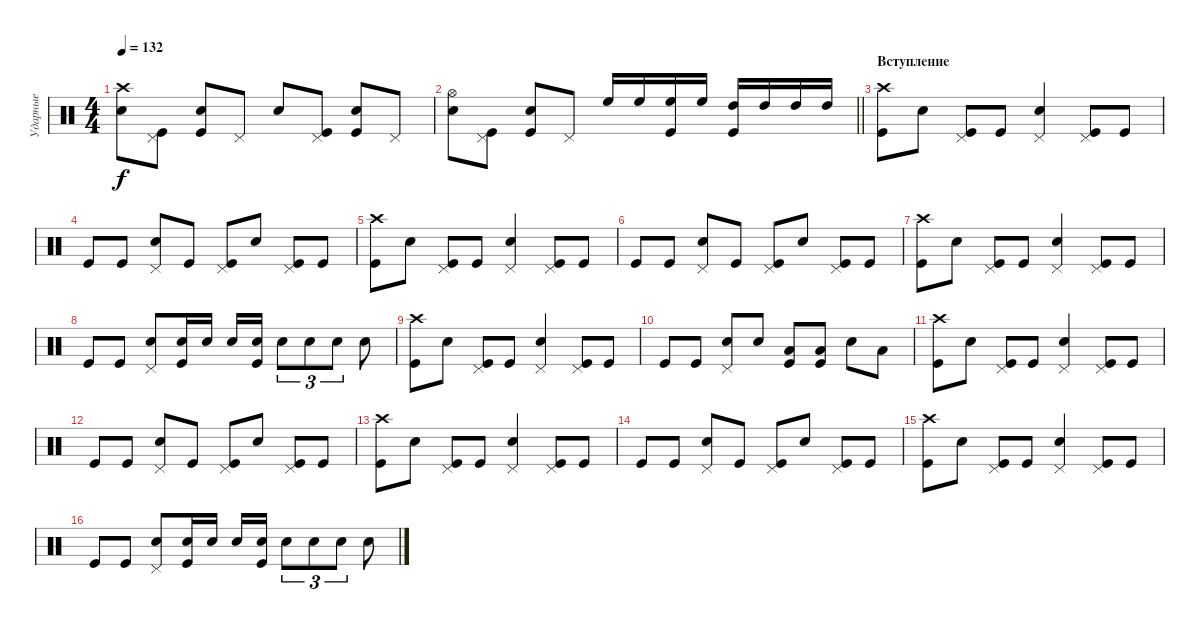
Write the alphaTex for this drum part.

\track ("Ударные" "Ударные") {instrument percussion}
\staff {score}
\articulation defaults
\ts (4 4)
\tempo 132
\clef neutral
\ks c
("Crash high (hit)" "Snare (hit) 2").8{dy f} ("Pedal Hi-Hat (hit)" "Kick (hit)").8 ("Snare (hit) 2" "Kick (hit)").8 "Pedal Hi-Hat (hit)".8 "Snare (hit) 2".8 ("Pedal Hi-Hat (hit)" "Kick (hit)").8 ("Snare (hit) 2" "Kick (hit)").8 "Pedal Hi-Hat (hit)".8 |
\barLineRight lightlight
("Hi-Hat (open)" "Snare (hit) 2").8 ("Pedal Hi-Hat (hit)" "Kick (hit)").8 ("Snare (hit) 2" "Kick (hit)").8 "Pedal Hi-Hat (hit)".8 "High Floor Tom (hit)".16 "High Floor Tom (hit)".16 ("High Floor Tom (hit)" "Kick (hit)").16 "High Floor Tom (hit)".16 ("High Tom (hit)" "Kick (hit)").16 "High Tom (hit)".16 "High Tom (hit)".16 "High Tom (hit)".16 |
\section ("" "Вступление")
("Crash high (hit)" "Kick (hit)").8 "Electric Snare (hit)".8 ("Pedal Hi-Hat (hit)" "Kick (hit)").8 "Kick (hit)".8 ("Pedal Hi-Hat (hit)" "Electric Snare (hit)").4 ("Pedal Hi-Hat (hit)" "Kick (hit)").8 "Kick (hit)".8 |
"Kick (hit)".8 "Kick (hit)".8 ("Pedal Hi-Hat (hit)" "Electric Snare (hit)").8 "Kick (hit)".8 ("Pedal Hi-Hat (hit)" "Kick (hit)").8 "Electric Snare (hit)".8 ("Pedal Hi-Hat (hit)" "Kick (hit)").8 "Kick (hit)".8 |
("Crash high (hit)" "Kick (hit)").8 "Electric Snare (hit)".8 ("Pedal Hi-Hat (hit)" "Kick (hit)").8 "Kick (hit)".8 ("Pedal Hi-Hat (hit)" "Electric Snare (hit)").4 ("Pedal Hi-Hat (hit)" "Kick (hit)").8 "Kick (hit)".8 |
"Kick (hit)".8 "Kick (hit)".8 ("Pedal Hi-Hat (hit)" "Electric Snare (hit)").8 "Kick (hit)".8 ("Pedal Hi-Hat (hit)" "Kick (hit)").8 "Electric Snare (hit)".8 ("Pedal Hi-Hat (hit)" "Kick (hit)").8 "Kick (hit)".8 |
("Crash high (hit)" "Kick (hit)").8 "Electric Snare (hit)".8 ("Pedal Hi-Hat (hit)" "Kick (hit)").8 "Kick (hit)".8 ("Pedal Hi-Hat (hit)" "Electric Snare (hit)").4 ("Pedal Hi-Hat (hit)" "Kick (hit)").8 "Kick (hit)".8 |
"Kick (hit)".8 "Kick (hit)".8 ("Pedal Hi-Hat (hit)" "Electric Snare (hit)").8 ("Snare (hit) 2" "Kick (hit)").16 "Snare (hit) 2".16 "Snare (hit) 2".16 ("Snare (hit) 2" "Kick (hit)").16 "Electric Snare (hit)".8{tu (3 2)} "Electric Snare (hit)".8{tu (3 2)} "Electric Snare (hit)".8{tu (3 2)} "Electric Snare (hit)".8 |
("Crash high (hit)" "Kick (hit)").8 "Electric Snare (hit)".8 ("Pedal Hi-Hat (hit)" "Kick (hit)").8 "Kick (hit)".8 ("Pedal Hi-Hat (hit)" "Electric Snare (hit)").4 ("Pedal Hi-Hat (hit)" "Kick (hit)").8 "Kick (hit)".8 |
"Kick (hit)".8 "Kick (hit)".8 ("Pedal Hi-Hat (hit)" "Electric Snare (hit)").8 "Electric Snare (hit)".8 ("Low Tom (hit)" "Kick (hit)").8 ("Low Tom (hit)" "Kick (hit)").8 "Electric Snare (hit)".8 "Low Floor Tom (hit)".8 |
("Crash high (hit)" "Kick (hit)").8 "Electric Snare (hit)".8 ("Pedal Hi-Hat (hit)" "Kick (hit)").8 "Kick (hit)".8 ("Pedal Hi-Hat (hit)" "Electric Snare (hit)").4 ("Pedal Hi-Hat (hit)" "Kick (hit)").8 "Kick (hit)".8 |
"Kick (hit)".8 "Kick (hit)".8 ("Pedal Hi-Hat (hit)" "Electric Snare (hit)").8 "Kick (hit)".8 ("Pedal Hi-Hat (hit)" "Kick (hit)").8 "Electric Snare (hit)".8 ("Pedal Hi-Hat (hit)" "Kick (hit)").8 "Kick (hit)".8 |
("Crash high (hit)" "Kick (hit)").8 "Electric Snare (hit)".8 ("Pedal Hi-Hat (hit)" "Kick (hit)").8 "Kick (hit)".8 ("Pedal Hi-Hat (hit)" "Electric Snare (hit)").4 ("Pedal Hi-Hat (hit)" "Kick (hit)").8 "Kick (hit)".8 |
"Kick (hit)".8 "Kick (hit)".8 ("Pedal Hi-Hat (hit)" "Electric Snare (hit)").8 "Kick (hit)".8 ("Pedal Hi-Hat (hit)" "Kick (hit)").8 "Electric Snare (hit)".8 ("Pedal Hi-Hat (hit)" "Kick (hit)").8 "Kick (hit)".8 |
("Crash high (hit)" "Kick (hit)").8 "Electric Snare (hit)".8 ("Pedal Hi-Hat (hit)" "Kick (hit)").8 "Kick (hit)".8 ("Pedal Hi-Hat (hit)" "Electric Snare (hit)").4 ("Pedal Hi-Hat (hit)" "Kick (hit)").8 "Kick (hit)".8 |
"Kick (hit)".8 "Kick (hit)".8 ("Pedal Hi-Hat (hit)" "Electric Snare (hit)").8 ("Snare (hit) 2" "Kick (hit)").16 "Snare (hit) 2".16 "Snare (hit) 2".16 ("Snare (hit) 2" "Kick (hit)").16 "Electric Snare (hit)".8{tu (3 2)} "Electric Snare (hit)".8{tu (3 2)} "Electric Snare (hit)".8{tu (3 2)} "Electric Snare (hit)".8
